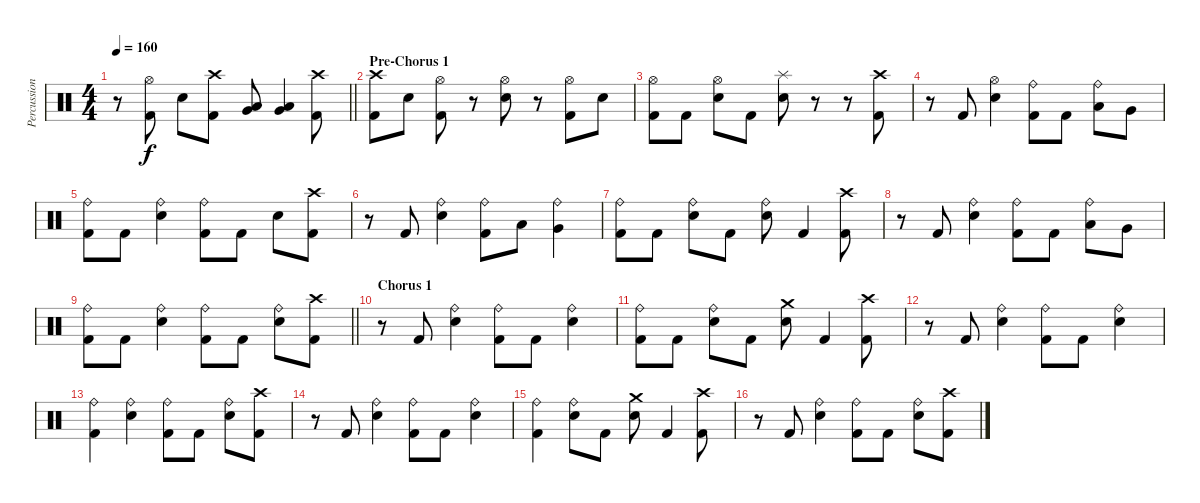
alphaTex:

\track ("Percussion" "Percussion") {instrument percussion}
\staff {score}
\articulation defaults
\ts (4 4)
\tempo 160
\clef neutral
\barLineRight lightlight
\ks c
r.8{dy f} ("Hi-Hat (open)" "Kick (hit) 2").8 "Electric Snare (hit)".8 ("Crash high (hit)" "Kick (hit) 2").8 ("Very Low Tom (hit)" "Low Floor Tom (hit)").8 ("Very Low Tom (hit)" "Low Floor Tom (hit)").4 ("Crash high (hit)" "Kick (hit) 2").8 |
\section ("" "Pre-Chorus 1")
("Crash high (hit)" "Kick (hit) 2").8 "Electric Snare (hit)".8 ("Hi-Hat (open)" "Kick (hit) 2").8 r.8 ("Hi-Hat (open)" "Electric Snare (hit)").8 r.8 ("Hi-Hat (open)" "Kick (hit) 2").8 "Electric Snare (hit)".8 |
("Hi-Hat (open)" "Kick (hit) 2").8 "Kick (hit) 2".8 ("Hi-Hat (open)" "Electric Snare (hit)").8 "Kick (hit) 2".8 ("Splash (hit)" "Electric Snare (hit)").8 r.8 r.8 ("Crash high (hit)" "Kick (hit) 2").8 |
r.8 "Kick (hit) 2".8 ("Hi-Hat (open)" "Electric Snare (hit)").4 ("Ride (bell)" "Kick (hit) 2").8 "Kick (hit) 2".8 ("Ride (bell)" "Low Tom (hit)").8 "Very Low Tom (hit)".8 |
("Ride (bell)" "Kick (hit) 2").8 "Kick (hit) 2".8 ("Ride (bell)" "Electric Snare (hit)").4 ("Ride (bell)" "Kick (hit) 2").8 "Kick (hit) 2".8 "Electric Snare (hit)".8 ("Crash high (hit)" "Kick (hit) 2").8 |
r.8 "Kick (hit) 2".8 ("Ride (bell)" "Electric Snare (hit)").4 ("Ride (bell)" "Kick (hit) 2").8 "Low Tom (hit)".8 ("Ride (bell)" "Very Low Tom (hit)").4 |
("Ride (bell)" "Kick (hit) 2").8 "Kick (hit) 2".8 ("Ride (bell)" "Electric Snare (hit)").8 "Kick (hit) 2".8 ("Ride (bell)" "Electric Snare (hit)").8 "Kick (hit) 2".4 ("Crash high (hit)" "Kick (hit) 2").8 |
r.8 "Kick (hit) 2".8 ("Ride (bell)" "Electric Snare (hit)").4 ("Ride (bell)" "Kick (hit) 2").8 "Kick (hit) 2".8 ("Ride (bell)" "Low Tom (hit)").8 "Very Low Tom (hit)".8 |
\barLineRight lightlight
("Ride (bell)" "Kick (hit) 2").8 "Kick (hit) 2".8 ("Ride (bell)" "Electric Snare (hit)").4 ("Ride (bell)" "Kick (hit) 2").8 "Kick (hit) 2".8 ("Ride (bell)" "Electric Snare (hit)").8 ("Crash high (hit)" "Kick (hit) 2").8 |
\section ("" "Chorus 1")
r.8 "Kick (hit) 2".8 ("Ride (bell)" "Electric Snare (hit)").4 ("Ride (bell)" "Kick (hit) 2").8 "Kick (hit) 2".8 ("Ride (bell)" "Electric Snare (hit)").4 |
("Ride (bell)" "Kick (hit) 2").8 "Kick (hit) 2".8 ("Ride (bell)" "Electric Snare (hit)").8 "Kick (hit) 2".8 ("Crash medium (hit)" "Electric Snare (hit)").8 "Kick (hit) 2".4 ("Crash high (hit)" "Kick (hit) 2").8 |
r.8 "Kick (hit) 2".8 ("Ride (bell)" "Electric Snare (hit)").4 ("Ride (bell)" "Kick (hit) 2").8 "Kick (hit) 2".8 ("Ride (bell)" "Electric Snare (hit)").4 |
("Ride (bell)" "Kick (hit) 2").4 ("Ride (bell)" "Electric Snare (hit)").4 ("Ride (bell)" "Kick (hit) 2").8 "Kick (hit) 2".8 ("Ride (bell)" "Electric Snare (hit)").8 ("Crash high (hit)" "Kick (hit) 2").8 |
r.8 "Kick (hit) 2".8 ("Ride (bell)" "Electric Snare (hit)").4 ("Ride (bell)" "Kick (hit) 2").8 "Kick (hit) 2".8 ("Ride (bell)" "Electric Snare (hit)").4 |
("Ride (bell)" "Kick (hit) 2").4 ("Ride (bell)" "Electric Snare (hit)").8 "Kick (hit) 2".8 ("Crash medium (hit)" "Electric Snare (hit)").8 "Kick (hit) 2".4 ("Crash high (hit)" "Kick (hit) 2").8 |
r.8 "Kick (hit) 2".8 ("Ride (bell)" "Electric Snare (hit)").4 ("Ride (bell)" "Kick (hit) 2").8 "Kick (hit) 2".8 ("Ride (bell)" "Electric Snare (hit)").8 ("Crash high (hit)" "Kick (hit) 2").8
